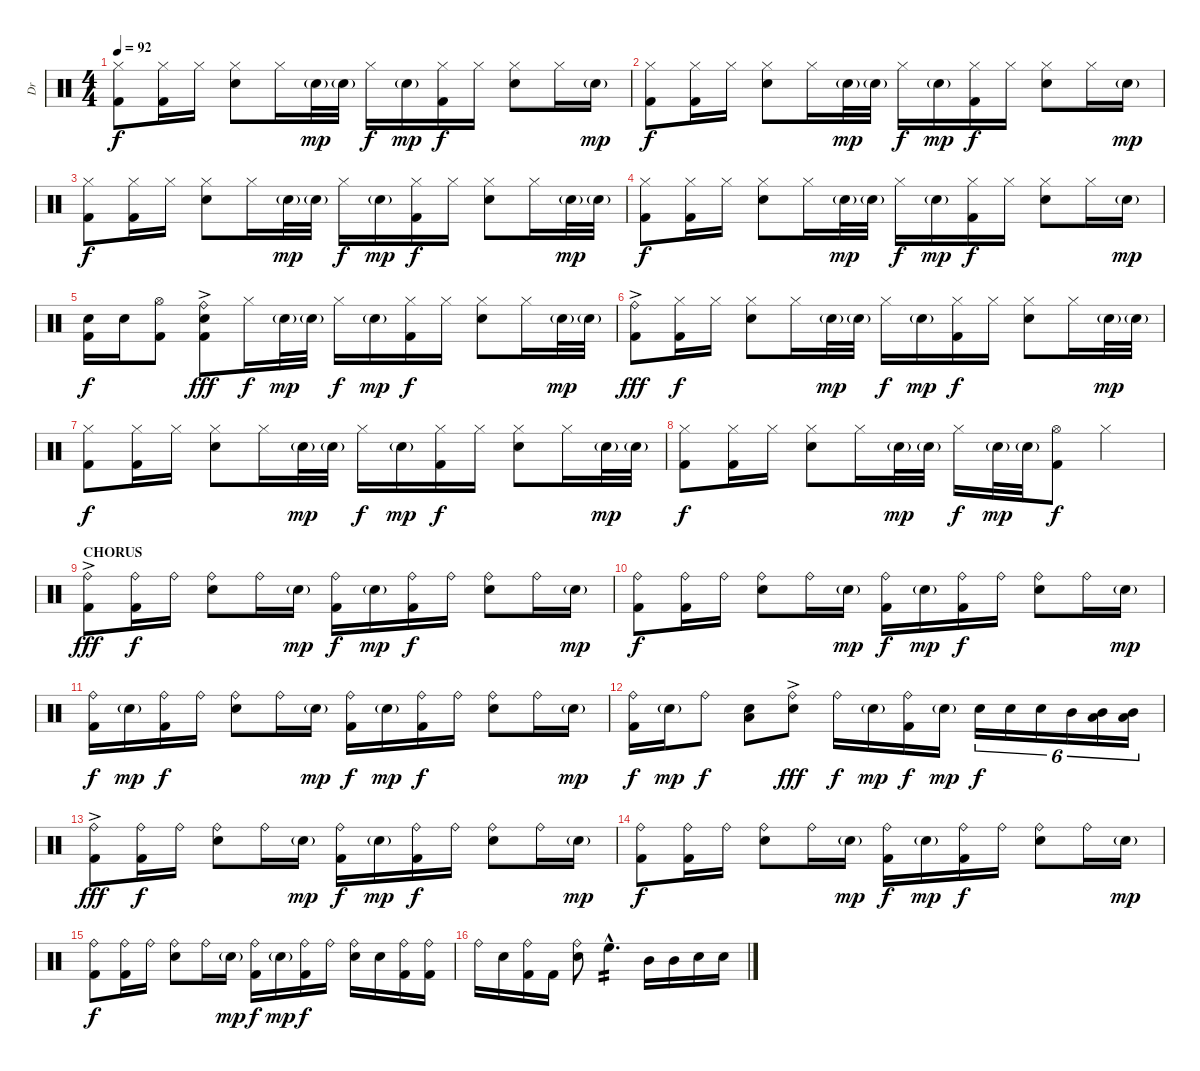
\track ("Dr" "Dr") {instrument percussion}
\staff {score}
\articulation defaults
\ts (4 4)
\tempo 92
\clef neutral
\ks c
("Hi-Hat (closed)" "Kick (hit) 2").8{dy f} ("Hi-Hat (closed)" "Kick (hit) 2").16 "Hi-Hat (closed)".16 ("Hi-Hat (closed)" "Electric Snare (hit)").8 "Hi-Hat (closed)".16 "Electric Snare (hit)"{g}.32{dy mp} "Electric Snare (hit)"{g}.32 "Hi-Hat (closed)".16{dy f} "Electric Snare (hit)"{g}.16{dy mp} ("Hi-Hat (closed)" "Kick (hit) 2").16{dy f} "Hi-Hat (closed)".16 ("Hi-Hat (closed)" "Electric Snare (hit)").8 "Hi-Hat (closed)".16 "Electric Snare (hit)"{g}.16{dy mp} |
("Hi-Hat (closed)" "Kick (hit) 2").8{dy f} ("Hi-Hat (closed)" "Kick (hit) 2").16 "Hi-Hat (closed)".16 ("Hi-Hat (closed)" "Electric Snare (hit)").8 "Hi-Hat (closed)".16 "Electric Snare (hit)"{g}.32{dy mp} "Electric Snare (hit)"{g}.32 "Hi-Hat (closed)".16{dy f} "Electric Snare (hit)"{g}.16{dy mp} ("Hi-Hat (closed)" "Kick (hit) 2").16{dy f} "Hi-Hat (closed)".16 ("Hi-Hat (closed)" "Electric Snare (hit)").8 "Hi-Hat (closed)".16 "Electric Snare (hit)"{g}.16{dy mp} |
("Hi-Hat (closed)" "Kick (hit) 2").8{dy f} ("Hi-Hat (closed)" "Kick (hit) 2").16 "Hi-Hat (closed)".16 ("Hi-Hat (closed)" "Electric Snare (hit)").8 "Hi-Hat (closed)".16 "Electric Snare (hit)"{g}.32{dy mp} "Electric Snare (hit)"{g}.32 "Hi-Hat (closed)".16{dy f} "Electric Snare (hit)"{g}.16{dy mp} ("Hi-Hat (closed)" "Kick (hit) 2").16{dy f} "Hi-Hat (closed)".16 ("Hi-Hat (closed)" "Electric Snare (hit)").8 "Hi-Hat (closed)".16 "Electric Snare (hit)"{g}.32{dy mp} "Electric Snare (hit)"{g}.32 |
("Hi-Hat (closed)" "Kick (hit) 2").8{dy f} ("Hi-Hat (closed)" "Kick (hit) 2").16 "Hi-Hat (closed)".16 ("Hi-Hat (closed)" "Electric Snare (hit)").8 "Hi-Hat (closed)".16 "Electric Snare (hit)"{g}.32{dy mp} "Electric Snare (hit)"{g}.32 "Hi-Hat (closed)".16{dy f} "Electric Snare (hit)"{g}.16{dy mp} ("Hi-Hat (closed)" "Kick (hit) 2").16{dy f} "Hi-Hat (closed)".16 ("Hi-Hat (closed)" "Electric Snare (hit)").8 "Hi-Hat (closed)".16 "Electric Snare (hit)"{g}.16{dy mp} |
("Electric Snare (hit)" "Kick (hit) 2").16{dy f} "Electric Snare (hit)".16 ("Hi-Hat (open)" "Kick (hit) 2").8 ("Ride (bell)"{ac} "Electric Snare (hit)"{ac} "Kick (hit) 2"{ac}).8{dy fff} "Hi-Hat (closed)".16{dy f} "Electric Snare (hit)"{g}.32{dy mp} "Electric Snare (hit)"{g}.32 "Hi-Hat (closed)".16{dy f} "Electric Snare (hit)"{g}.16{dy mp} ("Hi-Hat (closed)" "Kick (hit) 2").16{dy f} "Hi-Hat (closed)".16 ("Hi-Hat (closed)" "Electric Snare (hit)").8 "Hi-Hat (closed)".16 "Electric Snare (hit)"{g}.32{dy mp} "Electric Snare (hit)"{g}.32 |
("Ride (bell)"{ac} "Kick (hit) 2"{ac}).8{dy fff} ("Hi-Hat (closed)" "Kick (hit) 2").16{dy f} "Hi-Hat (closed)".16 ("Hi-Hat (closed)" "Electric Snare (hit)").8 "Hi-Hat (closed)".16 "Electric Snare (hit)"{g}.32{dy mp} "Electric Snare (hit)"{g}.32 "Hi-Hat (closed)".16{dy f} "Electric Snare (hit)"{g}.16{dy mp} ("Hi-Hat (closed)" "Kick (hit) 2").16{dy f} "Hi-Hat (closed)".16 ("Hi-Hat (closed)" "Electric Snare (hit)").8 "Hi-Hat (closed)".16 "Electric Snare (hit)"{g}.32{dy mp} "Electric Snare (hit)"{g}.32 |
("Hi-Hat (closed)" "Kick (hit) 2").8{dy f} ("Hi-Hat (closed)" "Kick (hit) 2").16 "Hi-Hat (closed)".16 ("Hi-Hat (closed)" "Electric Snare (hit)").8 "Hi-Hat (closed)".16 "Electric Snare (hit)"{g}.32{dy mp} "Electric Snare (hit)"{g}.32 "Hi-Hat (closed)".16{dy f} "Electric Snare (hit)"{g}.16{dy mp} ("Hi-Hat (closed)" "Kick (hit) 2").16{dy f} "Hi-Hat (closed)".16 ("Hi-Hat (closed)" "Electric Snare (hit)").8 "Hi-Hat (closed)".16 "Electric Snare (hit)"{g}.32{dy mp} "Electric Snare (hit)"{g}.32 |
("Hi-Hat (closed)" "Kick (hit) 2").8{dy f} ("Hi-Hat (closed)" "Kick (hit) 2").16 "Hi-Hat (closed)".16 ("Hi-Hat (closed)" "Electric Snare (hit)").8 "Hi-Hat (closed)".16 "Electric Snare (hit)"{g}.32{dy mp} "Electric Snare (hit)"{g}.32 "Hi-Hat (closed)".16{dy f} "Electric Snare (hit)"{g}.32{dy mp} "Electric Snare (hit)"{g}.32 ("Hi-Hat (open)" "Kick (hit) 2").8{dy f} "Hi-Hat (closed)".4 |
\section ("" "CHORUS")
("Ride (bell)"{ac} "Kick (hit) 2"{ac}).8{dy fff} ("Ride (bell)" "Kick (hit) 2").16{dy f} "Ride (bell)".16 ("Ride (bell)" "Electric Snare (hit)").8 "Ride (bell)".16 "Electric Snare (hit)"{g}.16{dy mp} ("Ride (bell)" "Kick (hit) 2").16{dy f} "Electric Snare (hit)"{g}.16{dy mp} ("Ride (bell)" "Kick (hit) 2").16{dy f} "Ride (bell)".16 ("Ride (bell)" "Electric Snare (hit)").8 "Ride (bell)".16 "Electric Snare (hit)"{g}.16{dy mp} |
("Ride (bell)" "Kick (hit) 2").8{dy f} ("Ride (bell)" "Kick (hit) 2").16 "Ride (bell)".16 ("Ride (bell)" "Electric Snare (hit)").8 "Ride (bell)".16 "Electric Snare (hit)"{g}.16{dy mp} ("Ride (bell)" "Kick (hit) 2").16{dy f} "Electric Snare (hit)"{g}.16{dy mp} ("Ride (bell)" "Kick (hit) 2").16{dy f} "Ride (bell)".16 ("Ride (bell)" "Electric Snare (hit)").8 "Ride (bell)".16 "Electric Snare (hit)"{g}.16{dy mp} |
("Ride (bell)" "Kick (hit) 2").16{dy f} "Electric Snare (hit)"{g}.16{dy mp} ("Ride (bell)" "Kick (hit) 2").16{dy f} "Ride (bell)".16 ("Ride (bell)" "Electric Snare (hit)").8 "Ride (bell)".16 "Electric Snare (hit)"{g}.16{dy mp} ("Ride (bell)" "Kick (hit) 2").16{dy f} "Electric Snare (hit)"{g}.16{dy mp} ("Ride (bell)" "Kick (hit) 2").16{dy f} "Ride (bell)".16 ("Ride (bell)" "Electric Snare (hit)").8 "Ride (bell)".16 "Electric Snare (hit)"{g}.16{dy mp} |
("Ride (bell)" "Kick (hit) 2").16{dy f} "Electric Snare (hit)"{g}.16{dy mp} "Ride (bell)".8{dy f} ("Electric Snare (hit)" "Low Tom (hit)").8 ("Ride (bell)"{ac} "Electric Snare (hit)"{ac}).8{dy fff} "Ride (bell)".16{dy f} "Electric Snare (hit)"{g}.16{dy mp} ("Ride (bell)" "Kick (hit) 2").16{dy f} "Electric Snare (hit)"{g}.16{dy mp} "Electric Snare (hit)".16{tu (6 4) dy f} "Electric Snare (hit)".16{tu (6 4)} "Electric Snare (hit)".16{tu (6 4)} "Mid Tom (hit)".16{tu (6 4)} ("Mid Tom (hit)" "Low Tom (hit)").16{tu (6 4)} ("Mid Tom (hit)" "Low Tom (hit)").16{tu (6 4)} |
("Ride (bell)"{ac} "Kick (hit) 2"{ac}).8{dy fff} ("Ride (bell)" "Kick (hit) 2").16{dy f} "Ride (bell)".16 ("Ride (bell)" "Electric Snare (hit)").8 "Ride (bell)".16 "Electric Snare (hit)"{g}.16{dy mp} ("Ride (bell)" "Kick (hit) 2").16{dy f} "Electric Snare (hit)"{g}.16{dy mp} ("Ride (bell)" "Kick (hit) 2").16{dy f} "Ride (bell)".16 ("Ride (bell)" "Electric Snare (hit)").8 "Ride (bell)".16 "Electric Snare (hit)"{g}.16{dy mp} |
("Ride (bell)" "Kick (hit) 2").8{dy f} ("Ride (bell)" "Kick (hit) 2").16 "Ride (bell)".16 ("Ride (bell)" "Electric Snare (hit)").8 "Ride (bell)".16 "Electric Snare (hit)"{g}.16{dy mp} ("Ride (bell)" "Kick (hit) 2").16{dy f} "Electric Snare (hit)"{g}.16{dy mp} ("Ride (bell)" "Kick (hit) 2").16{dy f} "Ride (bell)".16 ("Ride (bell)" "Electric Snare (hit)").8 "Ride (bell)".16 "Electric Snare (hit)"{g}.16{dy mp} |
("Ride (bell)" "Kick (hit) 2").8{dy f} ("Ride (bell)" "Kick (hit) 2").16 "Ride (bell)".16 ("Ride (bell)" "Electric Snare (hit)").8 "Ride (bell)".16 "Electric Snare (hit)"{g}.16{dy mp} ("Ride (bell)" "Kick (hit) 2").16{dy f} "Electric Snare (hit)"{g}.16{dy mp} ("Ride (bell)" "Kick (hit) 2").16{dy f} "Ride (bell)".16 ("Ride (bell)" "Electric Snare (hit)").16 "Electric Snare (hit)".16 ("Ride (bell)" "Kick (hit) 2").16 ("Ride (bell)" "Kick (hit) 2").16 |
"Ride (bell)".16 "Electric Snare (hit)".16 ("Ride (bell)" "Kick (hit) 2").16 "Kick (hit) 2".16 ("Ride (bell)" "Electric Snare (hit)").8 "High Floor Tom (hit)"{hac}.4{d tp 2} "Mid Tom (hit)".16 "Mid Tom (hit)".16 "Electric Snare (hit)".16 "Electric Snare (hit)".16
